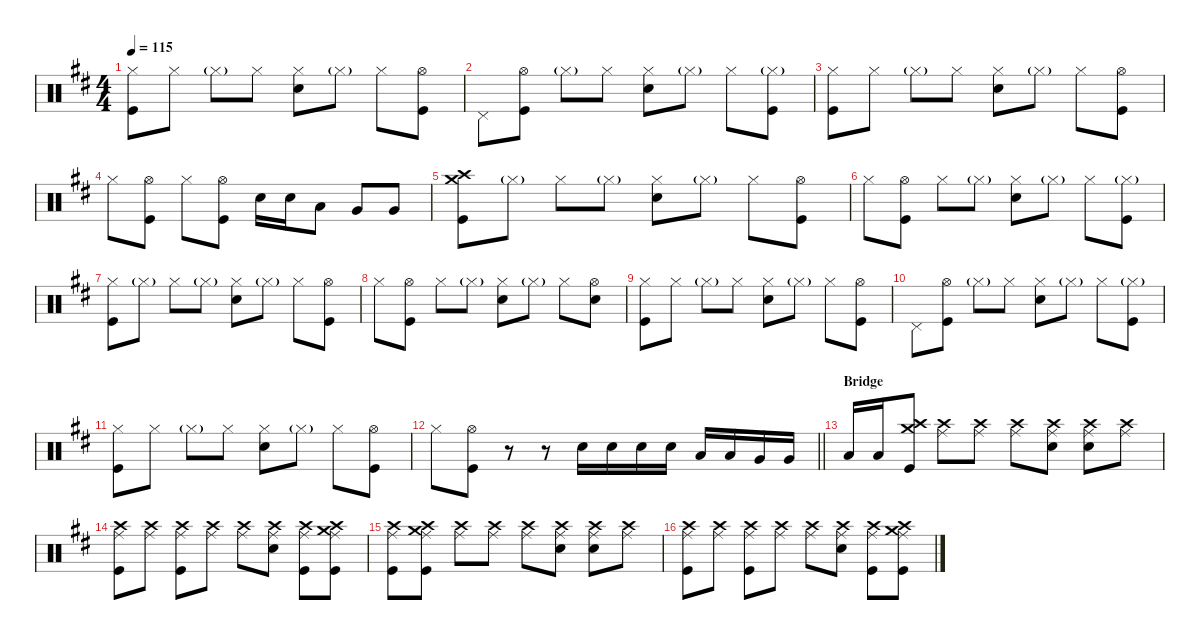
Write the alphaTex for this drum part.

\defaultSystemsLayout 4
\hideDynamics
\bracketExtendMode nobrackets
\singleTrackTrackNamePolicy hidden
\multiTrackTrackNamePolicy hidden
\firstSystemTrackNameMode fullname
\firstSystemTrackNameOrientation horizontal
\otherSystemsTrackNameOrientation horizontal
\track ("Aaron Harris" "drm.") {instrument percussion}
\staff {score}
\articulation defaults
\ts (4 4)
\tempo 115
\clef neutral
\ks bminor
("Hi-Hat (closed)"{acc forcenatural} "Kick (hit)"{acc forcenatural}).8{dy f beam Down} "Hi-Hat (closed)"{acc forcenatural}.8{beam Down} "Hi-Hat (closed)"{g acc forcenatural}.8{dy mf beam Down} "Hi-Hat (closed)"{acc forcenatural}.8{dy f beam Down} ("Hi-Hat (closed)"{acc forcenatural} "Snare (hit) 2"{acc forcenatural}).8{beam Down} "Hi-Hat (closed)"{g acc forcenatural}.8{dy mf beam Down} "Hi-Hat (closed)"{acc forcenatural}.8{dy f beam Down} ("Hi-Hat (open)"{acc forcenatural} "Kick (hit)"{acc forcenatural}).8{beam Down} |
"Pedal Hi-Hat (hit)"{acc forcenatural}.8{beam Down} ("Hi-Hat (open)"{acc forcenatural} "Kick (hit)"{acc forcenatural}).8{beam Down} "Hi-Hat (closed)"{g acc forcenatural}.8{dy mf beam Down} "Hi-Hat (closed)"{acc forcenatural}.8{dy f beam Down} ("Hi-Hat (closed)"{acc forcenatural} "Snare (hit) 2"{acc forcenatural}).8{beam Down} "Hi-Hat (closed)"{g acc forcenatural}.8{dy mf beam Down} "Hi-Hat (closed)"{acc forcenatural}.8{dy f beam Down} ("Hi-Hat (closed)"{g acc forcenatural} "Kick (hit)"{acc forcenatural}).8{beam Down} |
("Hi-Hat (closed)"{acc forcenatural} "Kick (hit)"{acc forcenatural}).8{beam Down} "Hi-Hat (closed)"{acc forcenatural}.8{beam Down} "Hi-Hat (closed)"{g acc forcenatural}.8{dy mf beam Down} "Hi-Hat (closed)"{acc forcenatural}.8{dy f beam Down} ("Hi-Hat (closed)"{acc forcenatural} "Snare (hit) 2"{acc forcenatural}).8{beam Down} "Hi-Hat (closed)"{g acc forcenatural}.8{dy mf beam Down} "Hi-Hat (closed)"{acc forcenatural}.8{dy f beam Down} ("Hi-Hat (open)"{acc forcenatural} "Kick (hit)"{acc forcenatural}).8{beam Down} |
"Hi-Hat (closed)"{acc forcenatural}.8{beam Down} ("Hi-Hat (open)"{acc forcenatural} "Kick (hit)"{acc forcenatural}).8{beam Down} "Hi-Hat (closed)"{acc forcenatural}.8{beam Down} ("Hi-Hat (open)"{acc forcenatural} "Kick (hit)"{acc forcenatural}).8{beam Down} "Snare (hit) 2"{acc forcenatural}.16{beam Down} "Snare (hit) 2"{acc forcenatural}.16{beam Down} "Low Tom (hit)"{acc forcenatural}.8{beam Down} "Very Low Tom (hit)"{acc forcenatural}.8{beam Up} "Very Low Tom (hit)"{acc forcenatural}.8{beam Up} |
("Crash medium (hit)"{acc forcenatural} "Crash high (hit)"{acc forcenatural} "Kick (hit)"{acc forcenatural}).8{beam Down} "Hi-Hat (closed)"{g acc forcenatural}.8{dy mf beam Down} "Hi-Hat (closed)"{acc forcenatural}.8{dy f beam Down} "Hi-Hat (closed)"{g acc forcenatural}.8{dy mf beam Down} ("Hi-Hat (closed)"{acc forcenatural} "Snare (hit) 2"{acc forcenatural}).8{dy f beam Down} "Hi-Hat (closed)"{g acc forcenatural}.8{dy mf beam Down} "Hi-Hat (closed)"{acc forcenatural}.8{dy f beam Down} ("Hi-Hat (open)"{acc forcenatural} "Kick (hit)"{acc forcenatural}).8{beam Down} |
"Hi-Hat (closed)"{acc forcenatural}.8{beam Down} ("Hi-Hat (open)"{acc forcenatural} "Kick (hit)"{acc forcenatural}).8{beam Down} "Hi-Hat (closed)"{acc forcenatural}.8{beam Down} "Hi-Hat (closed)"{g acc forcenatural}.8{dy mf beam Down} ("Hi-Hat (closed)"{acc forcenatural} "Snare (hit) 2"{acc forcenatural}).8{dy f beam Down} "Hi-Hat (closed)"{g acc forcenatural}.8{dy mf beam Down} "Hi-Hat (closed)"{acc forcenatural}.8{dy f beam Down} ("Hi-Hat (closed)"{g acc forcenatural} "Kick (hit)"{acc forcenatural}).8{beam Down} |
("Hi-Hat (closed)"{acc forcenatural} "Kick (hit)"{acc forcenatural}).8{beam Down} "Hi-Hat (closed)"{g acc forcenatural}.8{dy mf beam Down} "Hi-Hat (closed)"{acc forcenatural}.8{dy f beam Down} "Hi-Hat (closed)"{g acc forcenatural}.8{dy mf beam Down} ("Hi-Hat (closed)"{acc forcenatural} "Snare (hit) 2"{acc forcenatural}).8{dy f beam Down} "Hi-Hat (closed)"{g acc forcenatural}.8{dy mf beam Down} "Hi-Hat (closed)"{acc forcenatural}.8{dy f beam Down} ("Hi-Hat (open)"{acc forcenatural} "Kick (hit)"{acc forcenatural}).8{beam Down} |
"Hi-Hat (closed)"{acc forcenatural}.8{beam Down} ("Hi-Hat (open)"{acc forcenatural} "Kick (hit)"{acc forcenatural}).8{beam Down} "Hi-Hat (closed)"{acc forcenatural}.8{beam Down} "Hi-Hat (closed)"{g acc forcenatural}.8{dy mf beam Down} ("Hi-Hat (closed)"{acc forcenatural} "Snare (hit) 2"{acc forcenatural}).8{dy f beam Down} "Hi-Hat (closed)"{g acc forcenatural}.8{dy mf beam Down} "Hi-Hat (closed)"{acc forcenatural}.8{dy f beam Down} ("Hi-Hat (open)"{acc forcenatural} "Snare (hit) 2"{acc forcenatural}).8{beam Down} |
("Hi-Hat (closed)"{acc forcenatural} "Kick (hit)"{acc forcenatural}).8{beam Down} "Hi-Hat (closed)"{acc forcenatural}.8{beam Down} "Hi-Hat (closed)"{g acc forcenatural}.8{dy mf beam Down} "Hi-Hat (closed)"{acc forcenatural}.8{dy f beam Down} ("Hi-Hat (closed)"{acc forcenatural} "Snare (hit) 2"{acc forcenatural}).8{beam Down} "Hi-Hat (closed)"{g acc forcenatural}.8{dy mf beam Down} "Hi-Hat (closed)"{acc forcenatural}.8{dy f beam Down} ("Hi-Hat (open)"{acc forcenatural} "Kick (hit)"{acc forcenatural}).8{beam Down} |
"Pedal Hi-Hat (hit)"{acc forcenatural}.8{beam Down} ("Hi-Hat (open)"{acc forcenatural} "Kick (hit)"{acc forcenatural}).8{beam Down} "Hi-Hat (closed)"{g acc forcenatural}.8{dy mf beam Down} "Hi-Hat (closed)"{acc forcenatural}.8{dy f beam Down} ("Hi-Hat (closed)"{acc forcenatural} "Snare (hit) 2"{acc forcenatural}).8{beam Down} "Hi-Hat (closed)"{g acc forcenatural}.8{dy mf beam Down} "Hi-Hat (closed)"{acc forcenatural}.8{dy f beam Down} ("Hi-Hat (closed)"{g acc forcenatural} "Kick (hit)"{acc forcenatural}).8{beam Down} |
("Hi-Hat (closed)"{acc forcenatural} "Kick (hit)"{acc forcenatural}).8{beam Down} "Hi-Hat (closed)"{acc forcenatural}.8{beam Down} "Hi-Hat (closed)"{g acc forcenatural}.8{dy mf beam Down} "Hi-Hat (closed)"{acc forcenatural}.8{dy f beam Down} ("Hi-Hat (closed)"{acc forcenatural} "Snare (hit) 2"{acc forcenatural}).8{beam Down} "Hi-Hat (closed)"{g acc forcenatural}.8{dy mf beam Down} "Hi-Hat (closed)"{acc forcenatural}.8{dy f beam Down} ("Hi-Hat (open)"{acc forcenatural} "Kick (hit)"{acc forcenatural}).8{beam Down} |
\barLineRight lightlight "Hi-Hat (closed)"{acc forcenatural}.8{beam Down}
("Hi-Hat (open)"{acc forcenatural} "Kick (hit)"{acc forcenatural}).8{beam Down} r.8{beam Down} r.8{beam Down} "Snare (hit) 2"{acc forcenatural}.16{beam Down} "Snare (hit) 2"{acc forcenatural}.16{beam Down} "Snare (hit) 2"{acc forcenatural}.16{beam Down} "Snare (hit) 2"{acc forcenatural}.16{beam Down} "Low Tom (hit)"{acc forcenatural}.16{beam Up} "Low Tom (hit)"{acc forcenatural}.16{beam Up} "Very Low Tom (hit)"{acc forcenatural}.16{beam Up} "Very Low Tom (hit)"{acc forcenatural}.16{beam Up} |
\section ("" "Bridge")
"Low Floor Tom (hit)"{acc forcenatural}.16{beam Up} "Low Floor Tom (hit)"{acc forcenatural}.16{beam Up} ("Crash medium (hit)"{acc forcenatural} "Crash high (hit)"{acc forcenatural} "Kick (hit)"{acc forcenatural}).8{beam Up} ("Crash high (hit)"{acc forcenatural} "Ride (middle)"{acc forcenatural}).8{dy mp beam Down} ("Crash high (hit)"{acc forcenatural} "Ride (middle)"{acc forcenatural}).8{beam Down} ("Crash high (hit)"{acc forcenatural} "Ride (middle)"{acc forcenatural}).8{beam Down} ("Crash high (hit)"{acc forcenatural} "Ride (middle)"{acc forcenatural} "Snare (hit) 2"{acc forcenatural}).8{dy mf beam Down} ("Crash high (hit)"{acc forcenatural} "Ride (middle)"{acc forcenatural} "Snare (hit) 2"{acc forcenatural}).8{dy mp beam Down} ("Crash high (hit)"{acc forcenatural} "Ride (middle)"{acc forcenatural}).8{beam Down} |
("Crash high (hit)"{acc forcenatural} "Ride (middle)"{acc forcenatural} "Kick (hit)"{acc forcenatural}).8{dy p beam Down} ("Crash high (hit)"{acc forcenatural} "Ride (middle)"{acc forcenatural}).8{dy mp beam Down} ("Crash high (hit)"{acc forcenatural} "Ride (middle)"{acc forcenatural} "Kick (hit)"{acc forcenatural}).8{beam Down} ("Crash high (hit)"{acc forcenatural} "Ride (middle)"{acc forcenatural}).8{beam Down} ("Crash high (hit)"{acc forcenatural} "Ride (middle)"{acc forcenatural}).8{dy p beam Down} ("Crash high (hit)"{acc forcenatural} "Ride (middle)"{acc forcenatural} "Snare (hit) 2"{acc forcenatural}).8{dy mf beam Down} ("Crash high (hit)"{acc forcenatural} "Ride (middle)"{acc forcenatural} "Kick (hit)"{acc forcenatural}).8{dy mp beam Down} ("Crash medium (hit)"{acc forcenatural} "Crash high (hit)"{acc forcenatural} "Ride (middle)"{acc forcenatural} "Kick (hit)"{acc forcenatural}).8{beam Down} |
("Crash high (hit)"{acc forcenatural} "Ride (middle)"{acc forcenatural} "Kick (hit)"{acc forcenatural}).8{dy p beam Down} ("Crash medium (hit)"{acc forcenatural} "Crash high (hit)"{acc forcenatural} "Ride (middle)"{acc forcenatural} "Kick (hit)"{acc forcenatural}).8{dy f beam Down} ("Crash high (hit)"{acc forcenatural} "Ride (middle)"{acc forcenatural}).8{dy mp beam Down} ("Crash high (hit)"{acc forcenatural} "Ride (middle)"{acc forcenatural}).8{beam Down} ("Crash high (hit)"{acc forcenatural} "Ride (middle)"{acc forcenatural}).8{beam Down} ("Crash high (hit)"{acc forcenatural} "Ride (middle)"{acc forcenatural} "Snare (hit) 2"{acc forcenatural}).8{beam Down} ("Crash high (hit)"{acc forcenatural} "Ride (middle)"{acc forcenatural} "Snare (hit) 2"{acc forcenatural}).8{beam Down} ("Crash high (hit)"{acc forcenatural} "Ride (middle)"{acc forcenatural}).8{beam Down} |
("Crash high (hit)"{acc forcenatural} "Ride (middle)"{acc forcenatural} "Kick (hit)"{acc forcenatural}).8{dy p beam Down} ("Crash high (hit)"{acc forcenatural} "Ride (middle)"{acc forcenatural}).8{dy mp beam Down} ("Crash high (hit)"{acc forcenatural} "Ride (middle)"{acc forcenatural} "Kick (hit)"{acc forcenatural}).8{beam Down} ("Crash high (hit)"{acc forcenatural} "Ride (middle)"{acc forcenatural}).8{beam Down} ("Crash high (hit)"{acc forcenatural} "Ride (middle)"{acc forcenatural}).8{dy p beam Down} ("Crash high (hit)"{acc forcenatural} "Ride (middle)"{acc forcenatural} "Snare (hit) 2"{acc forcenatural}).8{dy mf beam Down} ("Crash high (hit)"{acc forcenatural} "Ride (middle)"{acc forcenatural} "Kick (hit)"{acc forcenatural}).8{dy mp beam Down} ("Crash medium (hit)"{acc forcenatural} "Crash high (hit)"{acc forcenatural} "Ride (middle)"{acc forcenatural} "Kick (hit)"{acc forcenatural}).8{beam Down}
